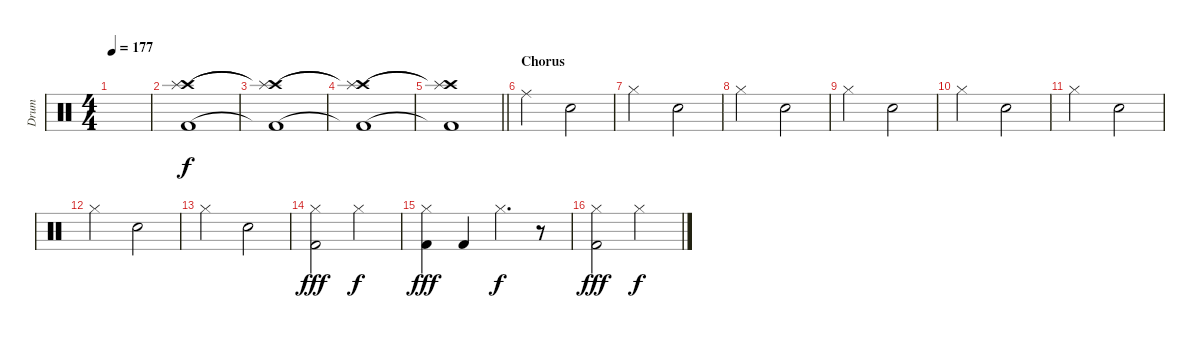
\track ("Drum" "Drum") {instrument percussion}
\staff {score}
\articulation defaults
\ts (4 4)
\tempo 177
\clef neutral
\ks c
|
("Crash high (hit)" "Splash (hit)" "Kick (hit) 2").1 |
("Crash high (hit)"{t} "Splash (hit)"{t} "Kick (hit) 2"{t}).1 |
("Crash high (hit)"{t} "Splash (hit)"{t} "Kick (hit) 2"{t}).1 |
\barLineRight lightlight
("Crash high (hit)"{t} "Splash (hit)"{t} "Kick (hit) 2"{t}).1 |
\section ("" "Chorus")
"Ride (middle)".2 "Hand Clap (hit)".2 |
"Hi-Hat (closed)".2 "Hand Clap (hit)".2 |
"Hi-Hat (closed)".2 "Hand Clap (hit)".2 |
"Hi-Hat (closed)".2 "Hand Clap (hit)".2 |
"Hi-Hat (closed)".2 "Hand Clap (hit)".2 |
"Hi-Hat (closed)".2 "Hand Clap (hit)".2 |
"Hi-Hat (closed)".2 "Hand Clap (hit)".2 |
"Hi-Hat (closed)".2 "Hand Clap (hit)".2 |
("Hi-Hat (closed)" "Kick (hit) 2").2{dy fff} "Hi-Hat (closed)".2{dy f} |
("Hi-Hat (closed)" "Kick (hit) 2").4{dy fff} "Kick (hit) 2".4 "Hi-Hat (closed)".4{d dy f} r.8 |
("Hi-Hat (closed)" "Kick (hit) 2").2{dy fff} "Hi-Hat (closed)".2{dy f}
